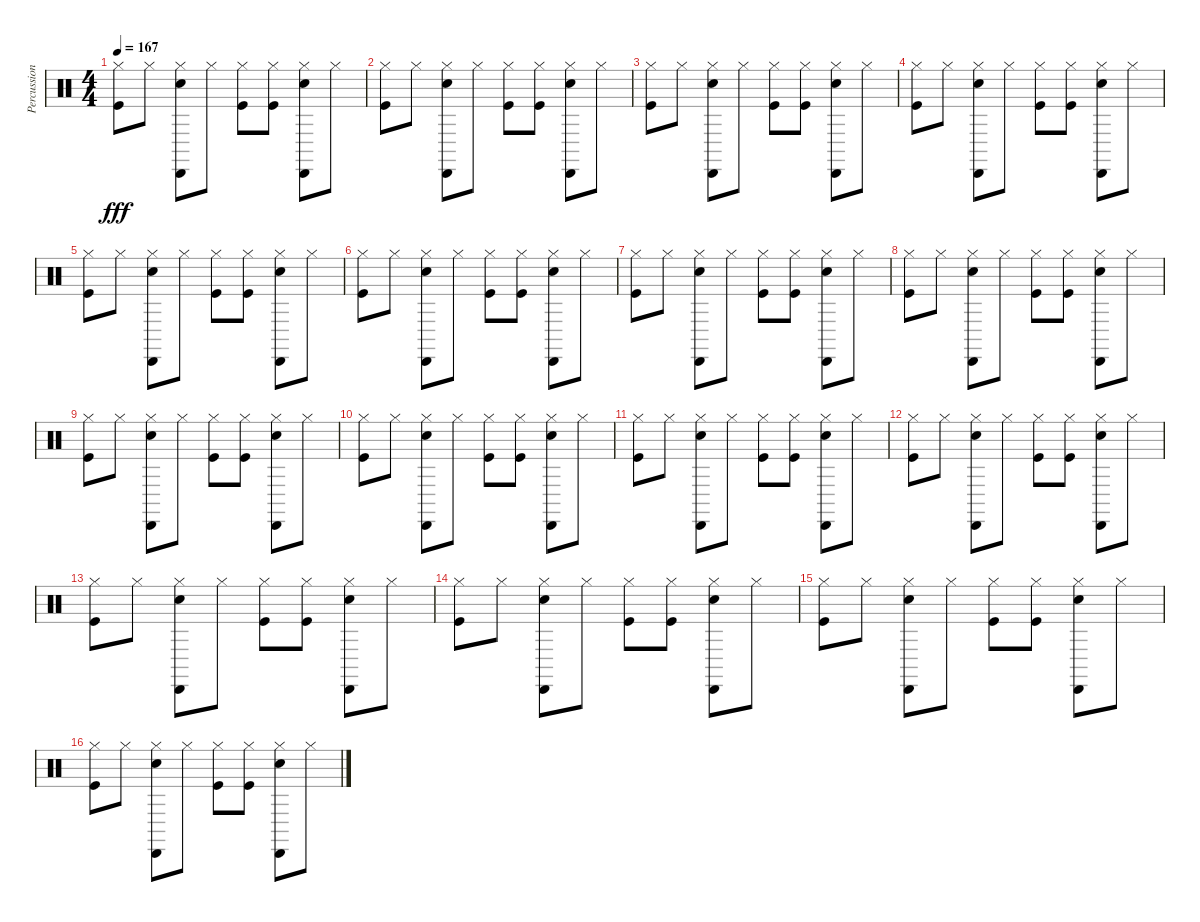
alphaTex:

\track ("Percussion" "Percussion") {instrument percussion}
\staff {score}
\articulation defaults
\ts (4 4)
\tempo 167
\clef neutral
\ks c
("Hi-Hat (closed)" "Kick (hit)").8{dy fff} "Hi-Hat (closed)".8 ("Hi-Hat (closed)" "Cabasa (hit)" "Snare (hit) 2").8 "Hi-Hat (closed)".8 ("Hi-Hat (closed)" "Kick (hit)").8 ("Hi-Hat (closed)" "Kick (hit)").8 ("Hi-Hat (closed)" "Cabasa (hit)" "Snare (hit) 2").8 "Hi-Hat (closed)".8 |
("Hi-Hat (closed)" "Kick (hit)").8 "Hi-Hat (closed)".8 ("Hi-Hat (closed)" "Cabasa (hit)" "Snare (hit) 2").8 "Hi-Hat (closed)".8 ("Hi-Hat (closed)" "Kick (hit)").8 ("Hi-Hat (closed)" "Kick (hit)").8 ("Hi-Hat (closed)" "Cabasa (hit)" "Snare (hit) 2").8 "Hi-Hat (closed)".8 |
("Hi-Hat (closed)" "Kick (hit)").8 "Hi-Hat (closed)".8 ("Hi-Hat (closed)" "Cabasa (hit)" "Snare (hit) 2").8 "Hi-Hat (closed)".8 ("Hi-Hat (closed)" "Kick (hit)").8 ("Hi-Hat (closed)" "Kick (hit)").8 ("Hi-Hat (closed)" "Cabasa (hit)" "Snare (hit) 2").8 "Hi-Hat (closed)".8 |
("Hi-Hat (closed)" "Kick (hit)").8 "Hi-Hat (closed)".8 ("Hi-Hat (closed)" "Cabasa (hit)" "Snare (hit) 2").8 "Hi-Hat (closed)".8 ("Hi-Hat (closed)" "Kick (hit)").8 ("Hi-Hat (closed)" "Kick (hit)").8 ("Hi-Hat (closed)" "Cabasa (hit)" "Snare (hit) 2").8 "Hi-Hat (closed)".8 |
("Hi-Hat (closed)" "Kick (hit)").8 "Hi-Hat (closed)".8 ("Hi-Hat (closed)" "Cabasa (hit)" "Snare (hit) 2").8 "Hi-Hat (closed)".8 ("Hi-Hat (closed)" "Kick (hit)").8 ("Hi-Hat (closed)" "Kick (hit)").8 ("Hi-Hat (closed)" "Cabasa (hit)" "Snare (hit) 2").8 "Hi-Hat (closed)".8 |
("Hi-Hat (closed)" "Kick (hit)").8 "Hi-Hat (closed)".8 ("Hi-Hat (closed)" "Cabasa (hit)" "Snare (hit) 2").8 "Hi-Hat (closed)".8 ("Hi-Hat (closed)" "Kick (hit)").8 ("Hi-Hat (closed)" "Kick (hit)").8 ("Hi-Hat (closed)" "Cabasa (hit)" "Snare (hit) 2").8 "Hi-Hat (closed)".8 |
("Hi-Hat (closed)" "Kick (hit)").8 "Hi-Hat (closed)".8 ("Hi-Hat (closed)" "Cabasa (hit)" "Snare (hit) 2").8 "Hi-Hat (closed)".8 ("Hi-Hat (closed)" "Kick (hit)").8 ("Hi-Hat (closed)" "Kick (hit)").8 ("Hi-Hat (closed)" "Cabasa (hit)" "Snare (hit) 2").8 "Hi-Hat (closed)".8 |
("Hi-Hat (closed)" "Kick (hit)").8 "Hi-Hat (closed)".8 ("Hi-Hat (closed)" "Cabasa (hit)" "Snare (hit) 2").8 "Hi-Hat (closed)".8 ("Hi-Hat (closed)" "Kick (hit)").8 ("Hi-Hat (closed)" "Kick (hit)").8 ("Hi-Hat (closed)" "Cabasa (hit)" "Snare (hit) 2").8 "Hi-Hat (closed)".8 |
("Hi-Hat (closed)" "Kick (hit)").8 "Hi-Hat (closed)".8 ("Hi-Hat (closed)" "Cabasa (hit)" "Snare (hit) 2").8 "Hi-Hat (closed)".8 ("Hi-Hat (closed)" "Kick (hit)").8 ("Hi-Hat (closed)" "Kick (hit)").8 ("Hi-Hat (closed)" "Cabasa (hit)" "Snare (hit) 2").8 "Hi-Hat (closed)".8 |
("Hi-Hat (closed)" "Kick (hit)").8 "Hi-Hat (closed)".8 ("Hi-Hat (closed)" "Cabasa (hit)" "Snare (hit) 2").8 "Hi-Hat (closed)".8 ("Hi-Hat (closed)" "Kick (hit)").8 ("Hi-Hat (closed)" "Kick (hit)").8 ("Hi-Hat (closed)" "Cabasa (hit)" "Snare (hit) 2").8 "Hi-Hat (closed)".8 |
("Hi-Hat (closed)" "Kick (hit)").8 "Hi-Hat (closed)".8 ("Hi-Hat (closed)" "Cabasa (hit)" "Snare (hit) 2").8 "Hi-Hat (closed)".8 ("Hi-Hat (closed)" "Kick (hit)").8 ("Hi-Hat (closed)" "Kick (hit)").8 ("Hi-Hat (closed)" "Cabasa (hit)" "Snare (hit) 2").8 "Hi-Hat (closed)".8 |
("Hi-Hat (closed)" "Kick (hit)").8 "Hi-Hat (closed)".8 ("Hi-Hat (closed)" "Cabasa (hit)" "Snare (hit) 2").8 "Hi-Hat (closed)".8 ("Hi-Hat (closed)" "Kick (hit)").8 ("Hi-Hat (closed)" "Kick (hit)").8 ("Hi-Hat (closed)" "Cabasa (hit)" "Snare (hit) 2").8 "Hi-Hat (closed)".8 |
("Hi-Hat (closed)" "Kick (hit)").8 "Hi-Hat (closed)".8 ("Hi-Hat (closed)" "Cabasa (hit)" "Snare (hit) 2").8 "Hi-Hat (closed)".8 ("Hi-Hat (closed)" "Kick (hit)").8 ("Hi-Hat (closed)" "Kick (hit)").8 ("Hi-Hat (closed)" "Cabasa (hit)" "Snare (hit) 2").8 "Hi-Hat (closed)".8 |
("Hi-Hat (closed)" "Kick (hit)").8 "Hi-Hat (closed)".8 ("Hi-Hat (closed)" "Cabasa (hit)" "Snare (hit) 2").8 "Hi-Hat (closed)".8 ("Hi-Hat (closed)" "Kick (hit)").8 ("Hi-Hat (closed)" "Kick (hit)").8 ("Hi-Hat (closed)" "Cabasa (hit)" "Snare (hit) 2").8 "Hi-Hat (closed)".8 |
("Hi-Hat (closed)" "Kick (hit)").8 "Hi-Hat (closed)".8 ("Hi-Hat (closed)" "Cabasa (hit)" "Snare (hit) 2").8 "Hi-Hat (closed)".8 ("Hi-Hat (closed)" "Kick (hit)").8 ("Hi-Hat (closed)" "Kick (hit)").8 ("Hi-Hat (closed)" "Cabasa (hit)" "Snare (hit) 2").8 "Hi-Hat (closed)".8 |
("Hi-Hat (closed)" "Kick (hit)").8 "Hi-Hat (closed)".8 ("Hi-Hat (closed)" "Cabasa (hit)" "Snare (hit) 2").8 "Hi-Hat (closed)".8 ("Hi-Hat (closed)" "Kick (hit)").8 ("Hi-Hat (closed)" "Kick (hit)").8 ("Hi-Hat (closed)" "Cabasa (hit)" "Snare (hit) 2").8 "Hi-Hat (closed)".8
